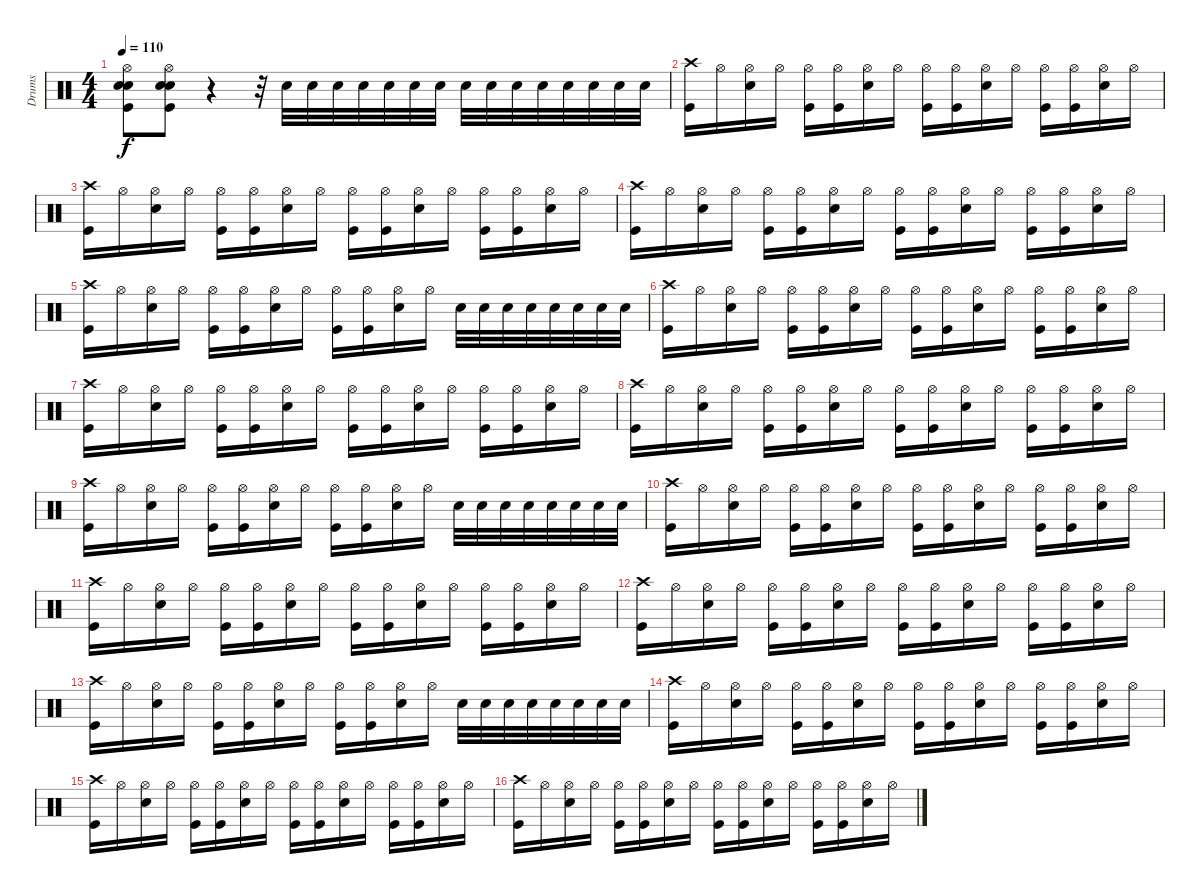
\track ("Drums" "Drums") {instrument percussion}
\staff {score}
\articulation defaults
\ts (4 4)
\tempo 110
\clef neutral
\ks c
("Hi-Hat (open)" "Snare (hit) 2" "Snare (hit) 2" "Kick (hit)").8{dy f} ("Hi-Hat (open)" "Snare (hit) 2" "Snare (hit) 2" "Kick (hit)").8 r.4 r.32 "Snare (hit) 2".32 "Snare (hit) 2".32 "Snare (hit) 2".32 "Snare (hit) 2".32 "Snare (hit) 2".32 "Snare (hit) 2".32 "Snare (hit) 2".32 "Snare (hit) 2".32 "Snare (hit) 2".32 "Snare (hit) 2".32 "Snare (hit) 2".32 "Snare (hit) 2".32 "Snare (hit) 2".32 "Snare (hit) 2".32 "Snare (hit) 2".32 |
("Crash high (hit)" "Kick (hit)").16 "Hi-Hat (open)".16 ("Hi-Hat (open)" "Snare (hit) 2").16 "Hi-Hat (open)".16 ("Hi-Hat (open)" "Kick (hit)").16 ("Hi-Hat (open)" "Kick (hit)").16 ("Hi-Hat (open)" "Snare (hit) 2").16 "Hi-Hat (open)".16 ("Hi-Hat (open)" "Kick (hit)").16 ("Hi-Hat (open)" "Kick (hit)").16 ("Hi-Hat (open)" "Snare (hit) 2").16 "Hi-Hat (open)".16 ("Hi-Hat (open)" "Kick (hit)").16 ("Hi-Hat (open)" "Kick (hit)").16 ("Hi-Hat (open)" "Snare (hit) 2").16 "Hi-Hat (open)".16 |
("Crash high (hit)" "Kick (hit)").16 "Hi-Hat (open)".16 ("Hi-Hat (open)" "Snare (hit) 2").16 "Hi-Hat (open)".16 ("Hi-Hat (open)" "Kick (hit)").16 ("Hi-Hat (open)" "Kick (hit)").16 ("Hi-Hat (open)" "Snare (hit) 2").16 "Hi-Hat (open)".16 ("Hi-Hat (open)" "Kick (hit)").16 ("Hi-Hat (open)" "Kick (hit)").16 ("Hi-Hat (open)" "Snare (hit) 2").16 "Hi-Hat (open)".16 ("Hi-Hat (open)" "Kick (hit)").16 ("Hi-Hat (open)" "Kick (hit)").16 ("Hi-Hat (open)" "Snare (hit) 2").16 "Hi-Hat (open)".16 |
("Crash high (hit)" "Kick (hit)").16 "Hi-Hat (open)".16 ("Hi-Hat (open)" "Snare (hit) 2").16 "Hi-Hat (open)".16 ("Hi-Hat (open)" "Kick (hit)").16 ("Hi-Hat (open)" "Kick (hit)").16 ("Hi-Hat (open)" "Snare (hit) 2").16 "Hi-Hat (open)".16 ("Hi-Hat (open)" "Kick (hit)").16 ("Hi-Hat (open)" "Kick (hit)").16 ("Hi-Hat (open)" "Snare (hit) 2").16 "Hi-Hat (open)".16 ("Hi-Hat (open)" "Kick (hit)").16 ("Hi-Hat (open)" "Kick (hit)").16 ("Hi-Hat (open)" "Snare (hit) 2").16 "Hi-Hat (open)".16 |
("Crash high (hit)" "Kick (hit)").16 "Hi-Hat (open)".16 ("Hi-Hat (open)" "Snare (hit) 2").16 "Hi-Hat (open)".16 ("Hi-Hat (open)" "Kick (hit)").16 ("Hi-Hat (open)" "Kick (hit)").16 ("Hi-Hat (open)" "Snare (hit) 2").16 "Hi-Hat (open)".16 ("Hi-Hat (open)" "Kick (hit)").16 ("Hi-Hat (open)" "Kick (hit)").16 ("Hi-Hat (open)" "Snare (hit) 2").16 "Hi-Hat (open)".16 "Snare (hit) 2".32 "Snare (hit) 2".32 "Snare (hit) 2".32 "Snare (hit) 2".32 "Snare (hit) 2".32 "Snare (hit) 2".32 "Snare (hit) 2".32 "Snare (hit) 2".32 |
("Crash high (hit)" "Kick (hit)").16 "Hi-Hat (open)".16 ("Hi-Hat (open)" "Snare (hit) 2").16 "Hi-Hat (open)".16 ("Hi-Hat (open)" "Kick (hit)").16 ("Hi-Hat (open)" "Kick (hit)").16 ("Hi-Hat (open)" "Snare (hit) 2").16 "Hi-Hat (open)".16 ("Hi-Hat (open)" "Kick (hit)").16 ("Hi-Hat (open)" "Kick (hit)").16 ("Hi-Hat (open)" "Snare (hit) 2").16 "Hi-Hat (open)".16 ("Hi-Hat (open)" "Kick (hit)").16 ("Hi-Hat (open)" "Kick (hit)").16 ("Hi-Hat (open)" "Snare (hit) 2").16 "Hi-Hat (open)".16 |
("Crash high (hit)" "Kick (hit)").16 "Hi-Hat (open)".16 ("Hi-Hat (open)" "Snare (hit) 2").16 "Hi-Hat (open)".16 ("Hi-Hat (open)" "Kick (hit)").16 ("Hi-Hat (open)" "Kick (hit)").16 ("Hi-Hat (open)" "Snare (hit) 2").16 "Hi-Hat (open)".16 ("Hi-Hat (open)" "Kick (hit)").16 ("Hi-Hat (open)" "Kick (hit)").16 ("Hi-Hat (open)" "Snare (hit) 2").16 "Hi-Hat (open)".16 ("Hi-Hat (open)" "Kick (hit)").16 ("Hi-Hat (open)" "Kick (hit)").16 ("Hi-Hat (open)" "Snare (hit) 2").16 "Hi-Hat (open)".16 |
("Crash high (hit)" "Kick (hit)").16 "Hi-Hat (open)".16 ("Hi-Hat (open)" "Snare (hit) 2").16 "Hi-Hat (open)".16 ("Hi-Hat (open)" "Kick (hit)").16 ("Hi-Hat (open)" "Kick (hit)").16 ("Hi-Hat (open)" "Snare (hit) 2").16 "Hi-Hat (open)".16 ("Hi-Hat (open)" "Kick (hit)").16 ("Hi-Hat (open)" "Kick (hit)").16 ("Hi-Hat (open)" "Snare (hit) 2").16 "Hi-Hat (open)".16 ("Hi-Hat (open)" "Kick (hit)").16 ("Hi-Hat (open)" "Kick (hit)").16 ("Hi-Hat (open)" "Snare (hit) 2").16 "Hi-Hat (open)".16 |
("Crash high (hit)" "Kick (hit)").16 "Hi-Hat (open)".16 ("Hi-Hat (open)" "Snare (hit) 2").16 "Hi-Hat (open)".16 ("Hi-Hat (open)" "Kick (hit)").16 ("Hi-Hat (open)" "Kick (hit)").16 ("Hi-Hat (open)" "Snare (hit) 2").16 "Hi-Hat (open)".16 ("Hi-Hat (open)" "Kick (hit)").16 ("Hi-Hat (open)" "Kick (hit)").16 ("Hi-Hat (open)" "Snare (hit) 2").16 "Hi-Hat (open)".16 "Snare (hit) 2".32 "Snare (hit) 2".32 "Snare (hit) 2".32 "Snare (hit) 2".32 "Snare (hit) 2".32 "Snare (hit) 2".32 "Snare (hit) 2".32 "Snare (hit) 2".32 |
("Crash high (hit)" "Kick (hit)").16 "Hi-Hat (open)".16 ("Hi-Hat (open)" "Snare (hit) 2").16 "Hi-Hat (open)".16 ("Hi-Hat (open)" "Kick (hit)").16 ("Hi-Hat (open)" "Kick (hit)").16 ("Hi-Hat (open)" "Snare (hit) 2").16 "Hi-Hat (open)".16 ("Hi-Hat (open)" "Kick (hit)").16 ("Hi-Hat (open)" "Kick (hit)").16 ("Hi-Hat (open)" "Snare (hit) 2").16 "Hi-Hat (open)".16 ("Hi-Hat (open)" "Kick (hit)").16 ("Hi-Hat (open)" "Kick (hit)").16 ("Hi-Hat (open)" "Snare (hit) 2").16 "Hi-Hat (open)".16 |
("Crash high (hit)" "Kick (hit)").16 "Hi-Hat (open)".16 ("Hi-Hat (open)" "Snare (hit) 2").16 "Hi-Hat (open)".16 ("Hi-Hat (open)" "Kick (hit)").16 ("Hi-Hat (open)" "Kick (hit)").16 ("Hi-Hat (open)" "Snare (hit) 2").16 "Hi-Hat (open)".16 ("Hi-Hat (open)" "Kick (hit)").16 ("Hi-Hat (open)" "Kick (hit)").16 ("Hi-Hat (open)" "Snare (hit) 2").16 "Hi-Hat (open)".16 ("Hi-Hat (open)" "Kick (hit)").16 ("Hi-Hat (open)" "Kick (hit)").16 ("Hi-Hat (open)" "Snare (hit) 2").16 "Hi-Hat (open)".16 |
("Crash high (hit)" "Kick (hit)").16 "Hi-Hat (open)".16 ("Hi-Hat (open)" "Snare (hit) 2").16 "Hi-Hat (open)".16 ("Hi-Hat (open)" "Kick (hit)").16 ("Hi-Hat (open)" "Kick (hit)").16 ("Hi-Hat (open)" "Snare (hit) 2").16 "Hi-Hat (open)".16 ("Hi-Hat (open)" "Kick (hit)").16 ("Hi-Hat (open)" "Kick (hit)").16 ("Hi-Hat (open)" "Snare (hit) 2").16 "Hi-Hat (open)".16 ("Hi-Hat (open)" "Kick (hit)").16 ("Hi-Hat (open)" "Kick (hit)").16 ("Hi-Hat (open)" "Snare (hit) 2").16 "Hi-Hat (open)".16 |
("Crash high (hit)" "Kick (hit)").16 "Hi-Hat (open)".16 ("Hi-Hat (open)" "Snare (hit) 2").16 "Hi-Hat (open)".16 ("Hi-Hat (open)" "Kick (hit)").16 ("Hi-Hat (open)" "Kick (hit)").16 ("Hi-Hat (open)" "Snare (hit) 2").16 "Hi-Hat (open)".16 ("Hi-Hat (open)" "Kick (hit)").16 ("Hi-Hat (open)" "Kick (hit)").16 ("Hi-Hat (open)" "Snare (hit) 2").16 "Hi-Hat (open)".16 "Snare (hit) 2".32 "Snare (hit) 2".32 "Snare (hit) 2".32 "Snare (hit) 2".32 "Snare (hit) 2".32 "Snare (hit) 2".32 "Snare (hit) 2".32 "Snare (hit) 2".32 |
("Crash high (hit)" "Kick (hit)").16 "Hi-Hat (open)".16 ("Hi-Hat (open)" "Snare (hit) 2").16 "Hi-Hat (open)".16 ("Hi-Hat (open)" "Kick (hit)").16 ("Hi-Hat (open)" "Kick (hit)").16 ("Hi-Hat (open)" "Snare (hit) 2").16 "Hi-Hat (open)".16 ("Hi-Hat (open)" "Kick (hit)").16 ("Hi-Hat (open)" "Kick (hit)").16 ("Hi-Hat (open)" "Snare (hit) 2").16 "Hi-Hat (open)".16 ("Hi-Hat (open)" "Kick (hit)").16 ("Hi-Hat (open)" "Kick (hit)").16 ("Hi-Hat (open)" "Snare (hit) 2").16 "Hi-Hat (open)".16 |
("Crash high (hit)" "Kick (hit)").16 "Hi-Hat (open)".16 ("Hi-Hat (open)" "Snare (hit) 2").16 "Hi-Hat (open)".16 ("Hi-Hat (open)" "Kick (hit)").16 ("Hi-Hat (open)" "Kick (hit)").16 ("Hi-Hat (open)" "Snare (hit) 2").16 "Hi-Hat (open)".16 ("Hi-Hat (open)" "Kick (hit)").16 ("Hi-Hat (open)" "Kick (hit)").16 ("Hi-Hat (open)" "Snare (hit) 2").16 "Hi-Hat (open)".16 ("Hi-Hat (open)" "Kick (hit)").16 ("Hi-Hat (open)" "Kick (hit)").16 ("Hi-Hat (open)" "Snare (hit) 2").16 "Hi-Hat (open)".16 |
("Crash high (hit)" "Kick (hit)").16 "Hi-Hat (open)".16 ("Hi-Hat (open)" "Snare (hit) 2").16 "Hi-Hat (open)".16 ("Hi-Hat (open)" "Kick (hit)").16 ("Hi-Hat (open)" "Kick (hit)").16 ("Hi-Hat (open)" "Snare (hit) 2").16 "Hi-Hat (open)".16 ("Hi-Hat (open)" "Kick (hit)").16 ("Hi-Hat (open)" "Kick (hit)").16 ("Hi-Hat (open)" "Snare (hit) 2").16 "Hi-Hat (open)".16 ("Hi-Hat (open)" "Kick (hit)").16 ("Hi-Hat (open)" "Kick (hit)").16 ("Hi-Hat (open)" "Snare (hit) 2").16 "Hi-Hat (open)".16
